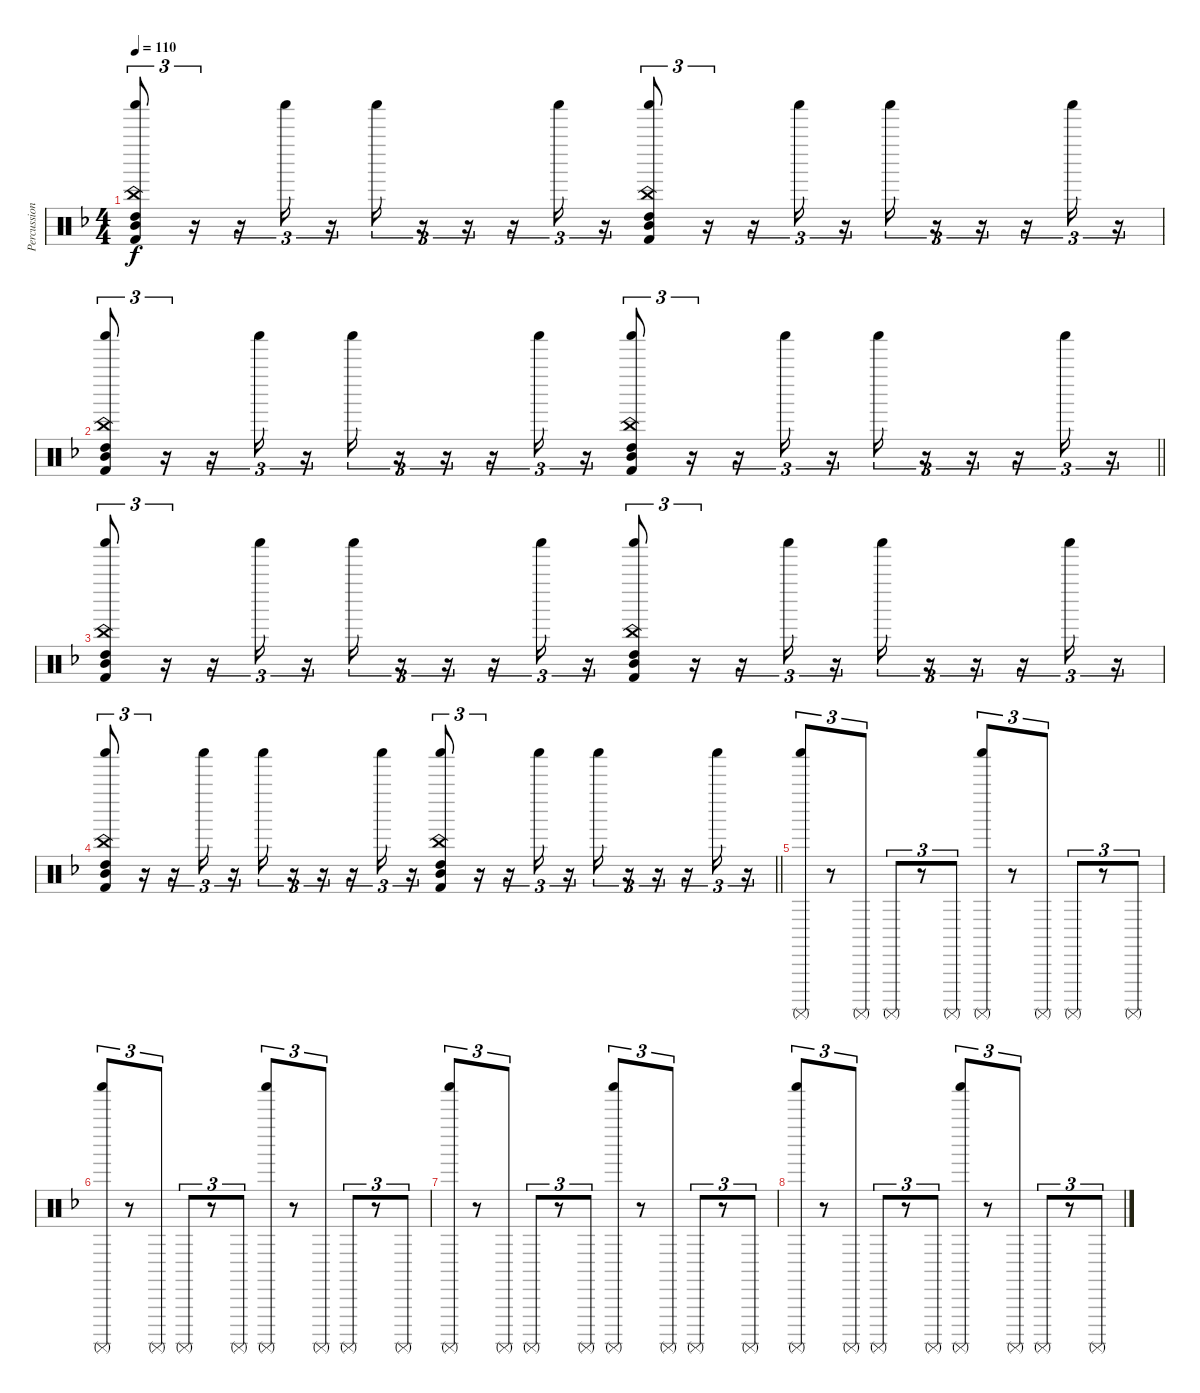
\track ("Percussion" "Percussion") {instrument percussion}
\staff {score}
\articulation defaults
\ts (4 4)
\tempo 110
\clef neutral
\ks f
("Mid Tom (hit)" "China (hit)" "Shaker (hit)" "High Tom (hit)" "Kick (hit) 2").8{tu (3 2) dy f} r.16{tu (3 2)} r.16{tu (3 2)} "Shaker (hit)".16{tu (3 2)} r.16{tu (3 2)} "Shaker (hit)".16{tu (3 2)} r.16{tu (3 2)} r.16{tu (3 2)} r.16{tu (3 2)} "Shaker (hit)".16{tu (3 2)} r.16{tu (3 2)} ("Mid Tom (hit)" "China (hit)" "Shaker (hit)" "High Tom (hit)" "Kick (hit) 2").8{tu (3 2)} r.16{tu (3 2)} r.16{tu (3 2)} "Shaker (hit)".16{tu (3 2)} r.16{tu (3 2)} "Shaker (hit)".16{tu (3 2)} r.16{tu (3 2)} r.16{tu (3 2)} r.16{tu (3 2)} "Shaker (hit)".16{tu (3 2)} r.16{tu (3 2)} |
\barLineRight lightlight
("Mid Tom (hit)" "China (hit)" "Shaker (hit)" "High Tom (hit)" "Kick (hit) 2").8{tu (3 2)} r.16{tu (3 2)} r.16{tu (3 2)} "Shaker (hit)".16{tu (3 2)} r.16{tu (3 2)} "Shaker (hit)".16{tu (3 2)} r.16{tu (3 2)} r.16{tu (3 2)} r.16{tu (3 2)} "Shaker (hit)".16{tu (3 2)} r.16{tu (3 2)} ("Mid Tom (hit)" "China (hit)" "Shaker (hit)" "High Tom (hit)" "Kick (hit) 2").8{tu (3 2)} r.16{tu (3 2)} r.16{tu (3 2)} "Shaker (hit)".16{tu (3 2)} r.16{tu (3 2)} "Shaker (hit)".16{tu (3 2)} r.16{tu (3 2)} r.16{tu (3 2)} r.16{tu (3 2)} "Shaker (hit)".16{tu (3 2)} r.16{tu (3 2)} |
("Mid Tom (hit)" "China (hit)" "Shaker (hit)" "High Tom (hit)" "Kick (hit) 2").8{tu (3 2)} r.16{tu (3 2)} r.16{tu (3 2)} "Shaker (hit)".16{tu (3 2)} r.16{tu (3 2)} "Shaker (hit)".16{tu (3 2)} r.16{tu (3 2)} r.16{tu (3 2)} r.16{tu (3 2)} "Shaker (hit)".16{tu (3 2)} r.16{tu (3 2)} ("Mid Tom (hit)" "China (hit)" "Shaker (hit)" "High Tom (hit)" "Kick (hit) 2").8{tu (3 2)} r.16{tu (3 2)} r.16{tu (3 2)} "Shaker (hit)".16{tu (3 2)} r.16{tu (3 2)} "Shaker (hit)".16{tu (3 2)} r.16{tu (3 2)} r.16{tu (3 2)} r.16{tu (3 2)} "Shaker (hit)".16{tu (3 2)} r.16{tu (3 2)} |
\barLineRight lightlight
("Mid Tom (hit)" "China (hit)" "Shaker (hit)" "High Tom (hit)" "Kick (hit) 2").8{tu (3 2)} r.16{tu (3 2)} r.16{tu (3 2)} "Shaker (hit)".16{tu (3 2)} r.16{tu (3 2)} "Shaker (hit)".16{tu (3 2)} r.16{tu (3 2)} r.16{tu (3 2)} r.16{tu (3 2)} "Shaker (hit)".16{tu (3 2)} r.16{tu (3 2)} ("Mid Tom (hit)" "China (hit)" "Shaker (hit)" "High Tom (hit)" "Kick (hit) 2").8{tu (3 2)} r.16{tu (3 2)} r.16{tu (3 2)} "Shaker (hit)".16{tu (3 2)} r.16{tu (3 2)} "Shaker (hit)".16{tu (3 2)} r.16{tu (3 2)} r.16{tu (3 2)} r.16{tu (3 2)} "Shaker (hit)".16{tu (3 2)} r.16{tu (3 2)} |
\section ("" "")
("Surdo (mute)" "Shaker (hit)").8{tu (3 2)} r.8{tu (3 2)} "Surdo (mute)".8{tu (3 2)} "Surdo (mute)".8{tu (3 2)} r.8{tu (3 2)} "Surdo (mute)".8{tu (3 2)} ("Surdo (mute)" "Shaker (hit)").8{tu (3 2)} r.8{tu (3 2)} "Surdo (mute)".8{tu (3 2)} "Surdo (mute)".8{tu (3 2)} r.8{tu (3 2)} "Surdo (mute)".8{tu (3 2)} |
("Surdo (mute)" "Shaker (hit)").8{tu (3 2)} r.8{tu (3 2)} "Surdo (mute)".8{tu (3 2)} "Surdo (mute)".8{tu (3 2)} r.8{tu (3 2)} "Surdo (mute)".8{tu (3 2)} ("Surdo (mute)" "Shaker (hit)").8{tu (3 2)} r.8{tu (3 2)} "Surdo (mute)".8{tu (3 2)} "Surdo (mute)".8{tu (3 2)} r.8{tu (3 2)} "Surdo (mute)".8{tu (3 2)} |
("Surdo (mute)" "Shaker (hit)").8{tu (3 2)} r.8{tu (3 2)} "Surdo (mute)".8{tu (3 2)} "Surdo (mute)".8{tu (3 2)} r.8{tu (3 2)} "Surdo (mute)".8{tu (3 2)} ("Surdo (mute)" "Shaker (hit)").8{tu (3 2)} r.8{tu (3 2)} "Surdo (mute)".8{tu (3 2)} "Surdo (mute)".8{tu (3 2)} r.8{tu (3 2)} "Surdo (mute)".8{tu (3 2)} |
("Surdo (mute)" "Shaker (hit)").8{tu (3 2)} r.8{tu (3 2)} "Surdo (mute)".8{tu (3 2)} "Surdo (mute)".8{tu (3 2)} r.8{tu (3 2)} "Surdo (mute)".8{tu (3 2)} ("Surdo (mute)" "Shaker (hit)").8{tu (3 2)} r.8{tu (3 2)} "Surdo (mute)".8{tu (3 2)} "Surdo (mute)".8{tu (3 2)} r.8{tu (3 2)} "Surdo (mute)".8{tu (3 2)}
